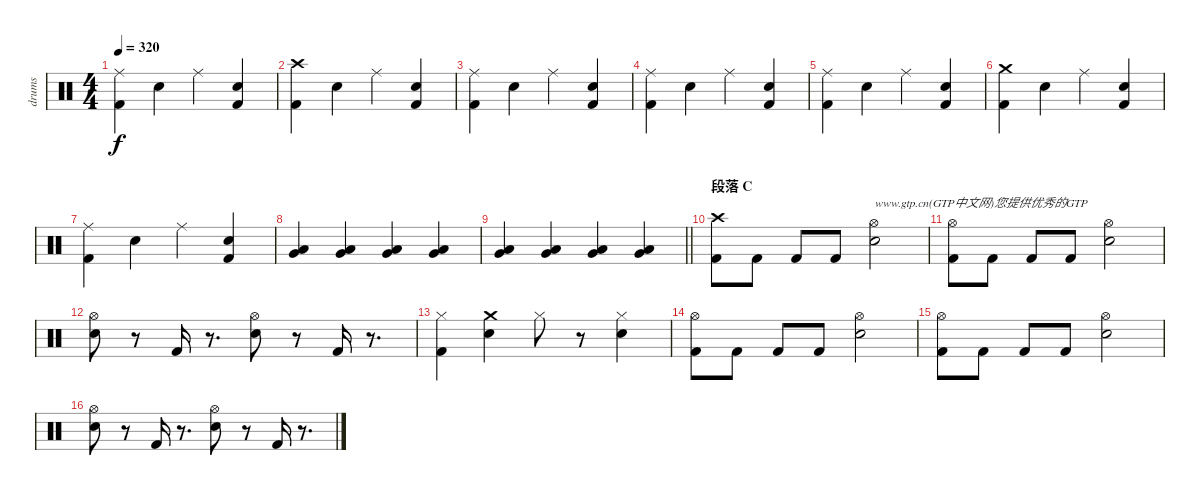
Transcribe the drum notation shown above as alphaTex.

\track ("drums" "drums") {instrument percussion}
\staff {score}
\articulation defaults
\ts (4 4)
\tempo 320
\clef neutral
\ks c
("Ride (middle)" "Kick (hit) 2").4{dy f} "Snare (hit) 2".4 "Ride (middle)".4 ("Snare (hit) 2" "Kick (hit) 2").4 |
("Crash high (hit)" "Kick (hit) 2").4 "Snare (hit) 2".4 "Ride (middle)".4 ("Snare (hit) 2" "Kick (hit) 2").4 |
("Ride (middle)" "Kick (hit) 2").4 "Snare (hit) 2".4 "Ride (middle)".4 ("Snare (hit) 2" "Kick (hit) 2").4 |
("Ride (middle)" "Kick (hit) 2").4 "Snare (hit) 2".4 "Ride (middle)".4 ("Snare (hit) 2" "Kick (hit) 2").4 |
("Ride (middle)" "Kick (hit) 2").4 "Snare (hit) 2".4 "Ride (middle)".4 ("Snare (hit) 2" "Kick (hit) 2").4 |
("Crash medium (hit)" "Kick (hit) 2").4 "Snare (hit) 2".4 "Ride (middle)".4 ("Snare (hit) 2" "Kick (hit) 2").4 |
("Ride (middle)" "Kick (hit) 2").4 "Snare (hit) 2".4 "Ride (middle)".4 ("Snare (hit) 2" "Kick (hit) 2").4 |
("Low Tom (hit)" "Very Low Tom (hit)").4 ("Low Tom (hit)" "Very Low Tom (hit)").4 ("Very Low Tom (hit)" "Low Floor Tom (hit)").4 ("Very Low Tom (hit)" "Low Floor Tom (hit)").4 |
\barLineRight lightlight
("Low Tom (hit)" "Very Low Tom (hit)").4 ("Low Tom (hit)" "Very Low Tom (hit)").4 ("Very Low Tom (hit)" "Low Floor Tom (hit)").4 ("Very Low Tom (hit)" "Low Floor Tom (hit)").4 |
\section ("" "段落 C")
("Crash high (hit)" "Kick (hit) 2").8 "Kick (hit) 2".8 "Kick (hit) 2".8 "Kick (hit) 2".8 ("Hi-Hat (open)" "Snare (hit) 2").2{txt "www.gtp.cn(GTP中文网)您提供优秀的GTP"} |
("Hi-Hat (open)" "Kick (hit) 2").8 "Kick (hit) 2".8 "Kick (hit) 2".8 "Kick (hit) 2".8 ("Hi-Hat (open)" "Snare (hit) 2").2 |
("Hi-Hat (open)" "Snare (hit) 2").8 r.8 "Kick (hit) 2".16 r.8{d} ("Hi-Hat (open)" "Snare (hit) 2").8 r.8 "Kick (hit) 2".16 r.8{d} |
("Hi-Hat (closed)" "Kick (hit) 2").4 ("Snare (hit) 2" "Crash medium (hit)").4 "Hi-Hat (closed)".8 r.8 ("Hi-Hat (closed)" "Snare (hit) 2").4 |
("Hi-Hat (open)" "Kick (hit) 2").8 "Kick (hit) 2".8 "Kick (hit) 2".8 "Kick (hit) 2".8 ("Hi-Hat (open)" "Snare (hit) 2").2 |
("Hi-Hat (open)" "Kick (hit) 2").8 "Kick (hit) 2".8 "Kick (hit) 2".8 "Kick (hit) 2".8 ("Hi-Hat (open)" "Snare (hit) 2").2 |
("Hi-Hat (open)" "Snare (hit) 2").8 r.8 "Kick (hit) 2".16 r.8{d} ("Hi-Hat (open)" "Snare (hit) 2").8 r.8 "Kick (hit) 2".16 r.8{d}
